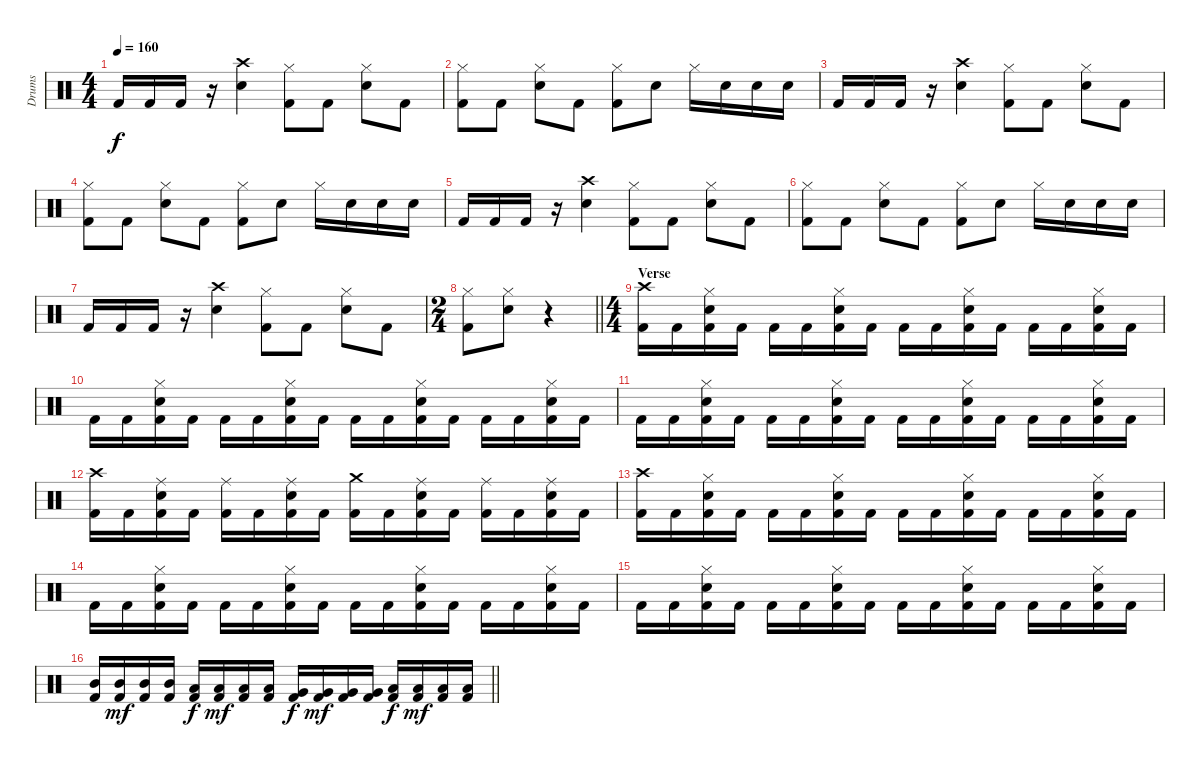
\track ("Drums" "Drums") {instrument percussion}
\staff {score}
\articulation defaults
\ts (4 4)
\tempo 160
\clef neutral
\ks c "Kick (hit) 2".16{dy f} "Kick (hit) 2".16 "Kick (hit) 2".16
r.16 ("Crash high (hit)" "Electric Snare (hit)").4 ("Kick (hit) 2" "Hi-Hat (closed)").8 "Kick (hit) 2".8 ("Hi-Hat (closed)" "Electric Snare (hit)").8 "Kick (hit) 2".8 |
("Kick (hit) 2" "Hi-Hat (closed)").8 "Kick (hit) 2".8 ("Hi-Hat (closed)" "Electric Snare (hit)").8 "Kick (hit) 2".8 ("Kick (hit) 2" "Hi-Hat (closed)").8 "Electric Snare (hit)".8 "Hi-Hat (closed)".16 "Electric Snare (hit)".16 "Electric Snare (hit)".16 "Electric Snare (hit)".16 |
"Kick (hit) 2".16 "Kick (hit) 2".16 "Kick (hit) 2".16 r.16 ("Crash high (hit)" "Electric Snare (hit)").4 ("Kick (hit) 2" "Hi-Hat (closed)").8 "Kick (hit) 2".8 ("Hi-Hat (closed)" "Electric Snare (hit)").8 "Kick (hit) 2".8 |
("Kick (hit) 2" "Hi-Hat (closed)").8 "Kick (hit) 2".8 ("Hi-Hat (closed)" "Electric Snare (hit)").8 "Kick (hit) 2".8 ("Kick (hit) 2" "Hi-Hat (closed)").8 "Electric Snare (hit)".8 "Hi-Hat (closed)".16 "Electric Snare (hit)".16 "Electric Snare (hit)".16 "Electric Snare (hit)".16 |
"Kick (hit) 2".16 "Kick (hit) 2".16 "Kick (hit) 2".16 r.16 ("Crash high (hit)" "Electric Snare (hit)").4 ("Kick (hit) 2" "Hi-Hat (closed)").8 "Kick (hit) 2".8 ("Hi-Hat (closed)" "Electric Snare (hit)").8 "Kick (hit) 2".8 |
("Kick (hit) 2" "Hi-Hat (closed)").8 "Kick (hit) 2".8 ("Hi-Hat (closed)" "Electric Snare (hit)").8 "Kick (hit) 2".8 ("Kick (hit) 2" "Hi-Hat (closed)").8 "Electric Snare (hit)".8 "Hi-Hat (closed)".16 "Electric Snare (hit)".16 "Electric Snare (hit)".16 "Electric Snare (hit)".16 |
"Kick (hit) 2".16 "Kick (hit) 2".16 "Kick (hit) 2".16 r.16 ("Crash high (hit)" "Electric Snare (hit)").4 ("Kick (hit) 2" "Hi-Hat (closed)").8 "Kick (hit) 2".8 ("Hi-Hat (closed)" "Electric Snare (hit)").8 "Kick (hit) 2".8 |
\ts (2 4)
\barLineRight lightlight
("Kick (hit) 2" "Hi-Hat (closed)").8 ("Hi-Hat (closed)" "Electric Snare (hit)").8 r.4 |
\ts (4 4)
\section ("" "Verse")
("Kick (hit) 2" "Crash high (hit)").16 "Kick (hit) 2".16 ("Kick (hit) 2" "Hi-Hat (closed)" "Electric Snare (hit)").16 "Kick (hit) 2".16 "Kick (hit) 2".16 "Kick (hit) 2".16 ("Kick (hit) 2" "Hi-Hat (closed)" "Electric Snare (hit)").16 "Kick (hit) 2".16 "Kick (hit) 2".16 "Kick (hit) 2".16 ("Kick (hit) 2" "Hi-Hat (closed)" "Electric Snare (hit)").16 "Kick (hit) 2".16 "Kick (hit) 2".16 "Kick (hit) 2".16 ("Kick (hit) 2" "Hi-Hat (closed)" "Electric Snare (hit)").16 "Kick (hit) 2".16 |
"Kick (hit) 2".16 "Kick (hit) 2".16 ("Kick (hit) 2" "Hi-Hat (closed)" "Electric Snare (hit)").16 "Kick (hit) 2".16 "Kick (hit) 2".16 "Kick (hit) 2".16 ("Kick (hit) 2" "Hi-Hat (closed)" "Electric Snare (hit)").16 "Kick (hit) 2".16 "Kick (hit) 2".16 "Kick (hit) 2".16 ("Kick (hit) 2" "Hi-Hat (closed)" "Electric Snare (hit)").16 "Kick (hit) 2".16 "Kick (hit) 2".16 "Kick (hit) 2".16 ("Kick (hit) 2" "Hi-Hat (closed)" "Electric Snare (hit)").16 "Kick (hit) 2".16 |
"Kick (hit) 2".16 "Kick (hit) 2".16 ("Kick (hit) 2" "Hi-Hat (closed)" "Electric Snare (hit)").16 "Kick (hit) 2".16 "Kick (hit) 2".16 "Kick (hit) 2".16 ("Kick (hit) 2" "Hi-Hat (closed)" "Electric Snare (hit)").16 "Kick (hit) 2".16 "Kick (hit) 2".16 "Kick (hit) 2".16 ("Kick (hit) 2" "Hi-Hat (closed)" "Electric Snare (hit)").16 "Kick (hit) 2".16 "Kick (hit) 2".16 "Kick (hit) 2".16 ("Kick (hit) 2" "Hi-Hat (closed)" "Electric Snare (hit)").16 "Kick (hit) 2".16 |
("Kick (hit) 2" "Crash high (hit)").16 "Kick (hit) 2".16 ("Kick (hit) 2" "Ride (middle)" "Electric Snare (hit)").16 "Kick (hit) 2".16 ("Kick (hit) 2" "Ride (middle)").16 "Kick (hit) 2".16 ("Kick (hit) 2" "Ride (middle)" "Electric Snare (hit)").16 "Kick (hit) 2".16 ("Kick (hit) 2" "Crash medium (hit)").16 "Kick (hit) 2".16 ("Kick (hit) 2" "Ride (middle)" "Electric Snare (hit)").16 "Kick (hit) 2".16 ("Kick (hit) 2" "Ride (middle)").16 "Kick (hit) 2".16 ("Kick (hit) 2" "Ride (middle)" "Electric Snare (hit)").16 "Kick (hit) 2".16 |
("Kick (hit) 2" "Crash high (hit)").16 "Kick (hit) 2".16 ("Kick (hit) 2" "Hi-Hat (closed)" "Electric Snare (hit)").16 "Kick (hit) 2".16 "Kick (hit) 2".16 "Kick (hit) 2".16 ("Kick (hit) 2" "Hi-Hat (closed)" "Electric Snare (hit)").16 "Kick (hit) 2".16 "Kick (hit) 2".16 "Kick (hit) 2".16 ("Kick (hit) 2" "Hi-Hat (closed)" "Electric Snare (hit)").16 "Kick (hit) 2".16 "Kick (hit) 2".16 "Kick (hit) 2".16 ("Kick (hit) 2" "Hi-Hat (closed)" "Electric Snare (hit)").16 "Kick (hit) 2".16 |
"Kick (hit) 2".16 "Kick (hit) 2".16 ("Kick (hit) 2" "Hi-Hat (closed)" "Electric Snare (hit)").16 "Kick (hit) 2".16 "Kick (hit) 2".16 "Kick (hit) 2".16 ("Kick (hit) 2" "Hi-Hat (closed)" "Electric Snare (hit)").16 "Kick (hit) 2".16 "Kick (hit) 2".16 "Kick (hit) 2".16 ("Kick (hit) 2" "Hi-Hat (closed)" "Electric Snare (hit)").16 "Kick (hit) 2".16 "Kick (hit) 2".16 "Kick (hit) 2".16 ("Kick (hit) 2" "Hi-Hat (closed)" "Electric Snare (hit)").16 "Kick (hit) 2".16 |
"Kick (hit) 2".16 "Kick (hit) 2".16 ("Kick (hit) 2" "Hi-Hat (closed)" "Electric Snare (hit)").16 "Kick (hit) 2".16 "Kick (hit) 2".16 "Kick (hit) 2".16 ("Kick (hit) 2" "Hi-Hat (closed)" "Electric Snare (hit)").16 "Kick (hit) 2".16 "Kick (hit) 2".16 "Kick (hit) 2".16 ("Kick (hit) 2" "Hi-Hat (closed)" "Electric Snare (hit)").16 "Kick (hit) 2".16 "Kick (hit) 2".16 "Kick (hit) 2".16 ("Kick (hit) 2" "Hi-Hat (closed)" "Electric Snare (hit)").16 "Kick (hit) 2".16 |
\barLineRight lightlight
("Kick (hit) 2" "Mid Tom (hit)").16 ("Kick (hit) 2" "Mid Tom (hit)").16{dy mf} ("Kick (hit) 2" "Mid Tom (hit)").16 ("Kick (hit) 2" "Mid Tom (hit)").16 ("Kick (hit) 2" "Low Tom (hit)").16{dy f} ("Kick (hit) 2" "Low Tom (hit)").16{dy mf} ("Kick (hit) 2" "Low Tom (hit)").16 ("Kick (hit) 2" "Low Tom (hit)").16 ("Kick (hit) 2" "Very Low Tom (hit)").16{dy f} ("Kick (hit) 2" "Very Low Tom (hit)").16{dy mf} ("Kick (hit) 2" "Very Low Tom (hit)").16 ("Kick (hit) 2" "Very Low Tom (hit)").16 ("Kick (hit) 2" "Low Floor Tom (hit)").16{dy f} ("Kick (hit) 2" "Low Floor Tom (hit)").16{dy mf} ("Kick (hit) 2" "Low Floor Tom (hit)").16 ("Kick (hit) 2" "Low Floor Tom (hit)").16
